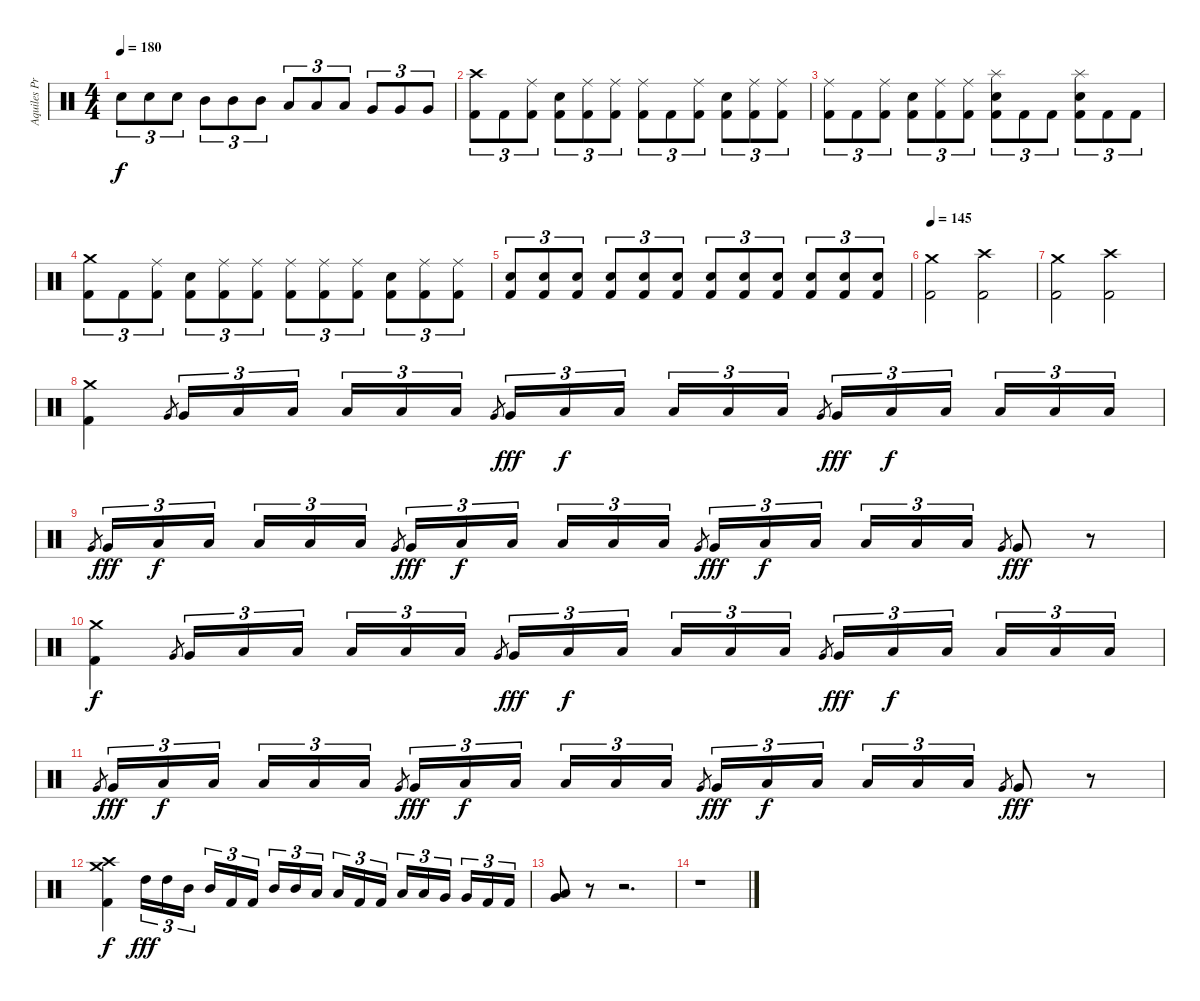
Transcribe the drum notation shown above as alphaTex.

\track ("Aquiles Priester" "Aquiles Pr") {instrument percussion}
\staff {score}
\articulation defaults
\ts (4 4)
\tempo 180
\clef neutral
\ks c "Snare (hit) 2".8{tu (3 2) dy f} "Snare (hit) 2".8{tu (3 2)} "Snare (hit) 2".8{tu (3 2)} "Mid Tom (hit)".8{tu (3 2)} "Mid Tom (hit)".8{tu (3 2)} "Mid Tom (hit)".8{tu (3 2)} "Low Tom (hit)".8{tu (3 2)} "Low Tom (hit)".8{tu (3 2)} "Low Tom (hit)".8{tu (3 2)} "Very Low Tom (hit)".8{tu (3 2)} "Very Low Tom (hit)".8{tu (3 2)} "Very Low Tom (hit)".8{tu (3 2)}
|
("Crash high (hit)" "Kick (hit) 2").8{tu (3 2)} "Kick (hit) 2".8{tu (3 2)} ("Ride (middle)" "Kick (hit) 2").8{tu (3 2)} ("Snare (hit) 2" "Kick (hit) 2").8{tu (3 2)} ("Ride (middle)" "Kick (hit) 2").8{tu (3 2)} ("Ride (middle)" "Kick (hit) 2").8{tu (3 2)} ("Ride (middle)" "Kick (hit) 2").8{tu (3 2)} "Kick (hit) 2".8{tu (3 2)} ("Ride (middle)" "Kick (hit) 2").8{tu (3 2)} ("Snare (hit) 2" "Kick (hit) 2").8{tu (3 2)} ("Ride (middle)" "Kick (hit) 2").8{tu (3 2)} ("Ride (middle)" "Kick (hit) 2").8{tu (3 2)} |
("Ride (middle)" "Kick (hit) 2").8{tu (3 2)} "Kick (hit) 2".8{tu (3 2)} ("Ride (middle)" "Kick (hit) 2").8{tu (3 2)} ("Snare (hit) 2" "Kick (hit) 2").8{tu (3 2)} ("Ride (middle)" "Kick (hit) 2").8{tu (3 2)} ("Ride (middle)" "Kick (hit) 2").8{tu (3 2)} ("Splash (hit)" "Snare (hit) 2" "Kick (hit) 2").8{tu (3 2)} "Kick (hit) 2".8{tu (3 2)} "Kick (hit) 2".8{tu (3 2)} ("Splash (hit)" "Snare (hit) 2" "Kick (hit) 2").8{tu (3 2)} "Kick (hit) 2".8{tu (3 2)} "Kick (hit) 2".8{tu (3 2)} |
("Crash medium (hit)" "Kick (hit) 2").8{tu (3 2)} "Kick (hit) 2".8{tu (3 2)} ("Ride (middle)" "Kick (hit) 2").8{tu (3 2)} ("Snare (hit) 2" "Kick (hit) 2").8{tu (3 2)} ("Ride (middle)" "Kick (hit) 2").8{tu (3 2)} ("Ride (middle)" "Kick (hit) 2").8{tu (3 2)} ("Ride (middle)" "Kick (hit) 2").8{tu (3 2)} ("Ride (middle)" "Kick (hit) 2").8{tu (3 2)} ("Ride (middle)" "Kick (hit) 2").8{tu (3 2)} ("Snare (hit) 2" "Kick (hit) 2").8{tu (3 2)} ("Ride (middle)" "Kick (hit) 2").8{tu (3 2)} ("Ride (middle)" "Kick (hit) 2").8{tu (3 2)} |
("Snare (hit) 2" "Kick (hit) 2").8{tu (3 2)} ("Snare (hit) 2" "Kick (hit) 2").8{tu (3 2)} ("Snare (hit) 2" "Kick (hit) 2").8{tu (3 2)} ("Snare (hit) 2" "Kick (hit) 2").8{tu (3 2)} ("Snare (hit) 2" "Kick (hit) 2").8{tu (3 2)} ("Snare (hit) 2" "Kick (hit) 2").8{tu (3 2)} ("Snare (hit) 2" "Kick (hit) 2").8{tu (3 2)} ("Snare (hit) 2" "Kick (hit) 2").8{tu (3 2)} ("Snare (hit) 2" "Kick (hit) 2").8{tu (3 2)} ("Snare (hit) 2" "Kick (hit) 2").8{tu (3 2)} ("Snare (hit) 2" "Kick (hit) 2").8{tu (3 2)} ("Snare (hit) 2" "Kick (hit) 2").8{tu (3 2)} |
\tempo 145
("Crash medium (hit)" "Kick (hit) 2").2 ("Crash high (hit)" "Kick (hit) 2").2 |
("Crash medium (hit)" "Kick (hit) 2").2 ("Crash high (hit)" "Kick (hit) 2").2 |
("Crash medium (hit)" "Kick (hit) 2").4 "Very Low Tom (hit)".8{gr} "Very Low Tom (hit)".16{tu (3 2)} "Low Floor Tom (hit)".16{tu (3 2)} "Low Floor Tom (hit)".16{tu (3 2)} "Low Floor Tom (hit)".16{tu (3 2)} "Low Floor Tom (hit)".16{tu (3 2)} "Low Floor Tom (hit)".16{tu (3 2)} "Very Low Tom (hit)".8{gr} "Very Low Tom (hit)".16{tu (3 2) dy fff} "Low Floor Tom (hit)".16{tu (3 2) dy f} "Low Floor Tom (hit)".16{tu (3 2)} "Low Floor Tom (hit)".16{tu (3 2)} "Low Floor Tom (hit)".16{tu (3 2)} "Low Floor Tom (hit)".16{tu (3 2)} "Very Low Tom (hit)".8{gr} "Very Low Tom (hit)".16{tu (3 2) dy fff} "Low Floor Tom (hit)".16{tu (3 2) dy f} "Low Floor Tom (hit)".16{tu (3 2)} "Low Floor Tom (hit)".16{tu (3 2)} "Low Floor Tom (hit)".16{tu (3 2)} "Low Floor Tom (hit)".16{tu (3 2)} |
"Very Low Tom (hit)".8{gr} "Very Low Tom (hit)".16{tu (3 2) dy fff} "Low Floor Tom (hit)".16{tu (3 2) dy f} "Low Floor Tom (hit)".16{tu (3 2)} "Low Floor Tom (hit)".16{tu (3 2)} "Low Floor Tom (hit)".16{tu (3 2)} "Low Floor Tom (hit)".16{tu (3 2)} "Very Low Tom (hit)".8{gr} "Very Low Tom (hit)".16{tu (3 2) dy fff} "Low Floor Tom (hit)".16{tu (3 2) dy f} "Low Floor Tom (hit)".16{tu (3 2)} "Low Floor Tom (hit)".16{tu (3 2)} "Low Floor Tom (hit)".16{tu (3 2)} "Low Floor Tom (hit)".16{tu (3 2)} "Very Low Tom (hit)".8{gr} "Very Low Tom (hit)".16{tu (3 2) dy fff} "Low Floor Tom (hit)".16{tu (3 2) dy f} "Low Floor Tom (hit)".16{tu (3 2)} "Low Floor Tom (hit)".16{tu (3 2)} "Low Floor Tom (hit)".16{tu (3 2)} "Low Floor Tom (hit)".16{tu (3 2)} "Very Low Tom (hit)".8{gr} "Very Low Tom (hit)".8{dy fff} r.8 |
("Crash medium (hit)" "Kick (hit) 2").4{dy f} "Very Low Tom (hit)".8{gr} "Very Low Tom (hit)".16{tu (3 2)} "Low Floor Tom (hit)".16{tu (3 2)} "Low Floor Tom (hit)".16{tu (3 2)} "Low Floor Tom (hit)".16{tu (3 2)} "Low Floor Tom (hit)".16{tu (3 2)} "Low Floor Tom (hit)".16{tu (3 2)} "Very Low Tom (hit)".8{gr} "Very Low Tom (hit)".16{tu (3 2) dy fff} "Low Floor Tom (hit)".16{tu (3 2) dy f} "Low Floor Tom (hit)".16{tu (3 2)} "Low Floor Tom (hit)".16{tu (3 2)} "Low Floor Tom (hit)".16{tu (3 2)} "Low Floor Tom (hit)".16{tu (3 2)} "Very Low Tom (hit)".8{gr} "Very Low Tom (hit)".16{tu (3 2) dy fff} "Low Floor Tom (hit)".16{tu (3 2) dy f} "Low Floor Tom (hit)".16{tu (3 2)} "Low Floor Tom (hit)".16{tu (3 2)} "Low Floor Tom (hit)".16{tu (3 2)} "Low Floor Tom (hit)".16{tu (3 2)} |
"Very Low Tom (hit)".8{gr} "Very Low Tom (hit)".16{tu (3 2) dy fff} "Low Floor Tom (hit)".16{tu (3 2) dy f} "Low Floor Tom (hit)".16{tu (3 2)} "Low Floor Tom (hit)".16{tu (3 2)} "Low Floor Tom (hit)".16{tu (3 2)} "Low Floor Tom (hit)".16{tu (3 2)} "Very Low Tom (hit)".8{gr} "Very Low Tom (hit)".16{tu (3 2) dy fff} "Low Floor Tom (hit)".16{tu (3 2) dy f} "Low Floor Tom (hit)".16{tu (3 2)} "Low Floor Tom (hit)".16{tu (3 2)} "Low Floor Tom (hit)".16{tu (3 2)} "Low Floor Tom (hit)".16{tu (3 2)} "Very Low Tom (hit)".8{gr} "Very Low Tom (hit)".16{tu (3 2) dy fff} "Low Floor Tom (hit)".16{tu (3 2) dy f} "Low Floor Tom (hit)".16{tu (3 2)} "Low Floor Tom (hit)".16{tu (3 2)} "Low Floor Tom (hit)".16{tu (3 2)} "Low Floor Tom (hit)".16{tu (3 2)} "Very Low Tom (hit)".8{gr} "Very Low Tom (hit)".8{dy fff} r.8 |
("Crash medium (hit)" "Crash high (hit)" "Kick (hit) 2").4{dy f} "High Tom (hit)".16{tu (3 2) dy fff} "High Tom (hit)".16{tu (3 2)} "Mid Tom (hit)".16{tu (3 2)} "Mid Tom (hit)".16{tu (3 2)} "Kick (hit) 2".16{tu (3 2)} "Kick (hit) 2".16{tu (3 2)} "Mid Tom (hit)".16{tu (3 2)} "Mid Tom (hit)".16{tu (3 2)} "Low Tom (hit)".16{tu (3 2)} "Low Tom (hit)".16{tu (3 2)} "Kick (hit) 2".16{tu (3 2)} "Kick (hit) 2".16{tu (3 2)} "Low Tom (hit)".16{tu (3 2)} "Low Tom (hit)".16{tu (3 2)} "Very Low Tom (hit)".16{tu (3 2)} "Very Low Tom (hit)".16{tu (3 2)} "Kick (hit) 2".16{tu (3 2)} "Kick (hit) 2".16{tu (3 2)} |
("Very Low Tom (hit)" "Low Floor Tom (hit)").8 r.8 r.2{d} |
r.1
